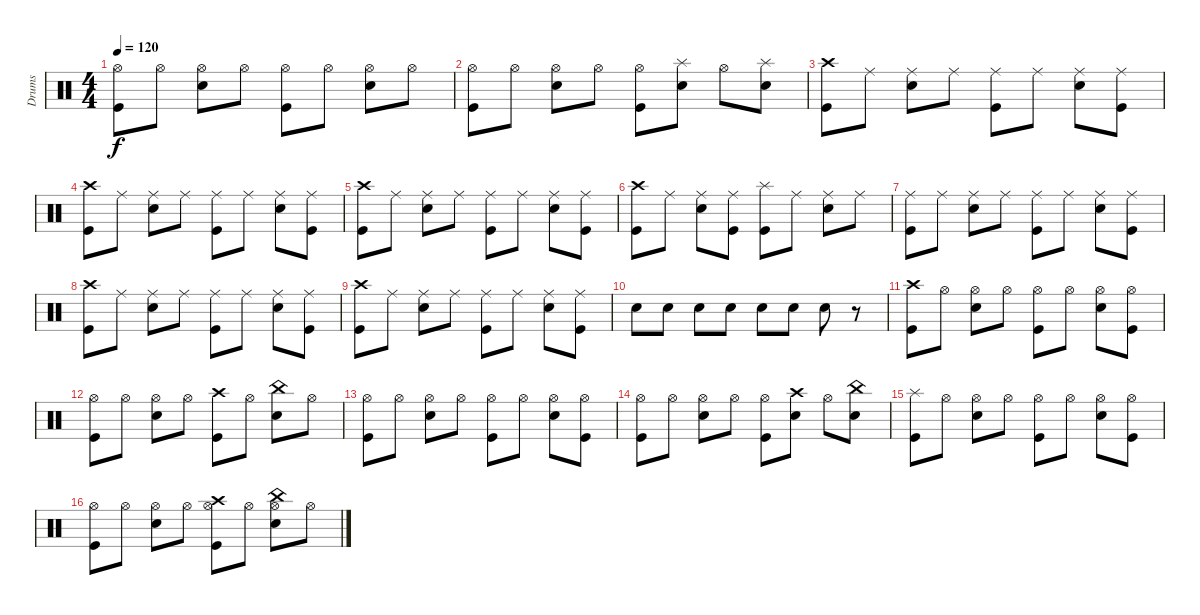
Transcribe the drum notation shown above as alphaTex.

\track ("Drums" "Drums") {instrument percussion}
\staff {score}
\articulation defaults
\ts (4 4)
\tempo 120
\clef neutral
\ks c
("Hi-Hat (open)" "Kick (hit)").8{dy f} "Hi-Hat (open)".8 ("Hi-Hat (open)" "Snare (hit) 2").8 "Hi-Hat (open)".8 ("Hi-Hat (open)" "Kick (hit)").8 "Hi-Hat (open)".8 ("Hi-Hat (open)" "Snare (hit) 2").8 "Hi-Hat (open)".8 |
("Hi-Hat (open)" "Kick (hit)").8 "Hi-Hat (open)".8 ("Hi-Hat (open)" "Snare (hit) 2").8 "Hi-Hat (open)".8 ("Hi-Hat (open)" "Kick (hit)").8 ("Snare (hit) 2" "Splash (hit)").8 "Hi-Hat (open)".8 ("Snare (hit) 2" "Splash (hit)").8 |
("Kick (hit)" "Crash high (hit)").8 "Ride (middle)".8 ("Ride (middle)" "Snare (hit) 2").8 "Ride (middle)".8 ("Ride (middle)" "Kick (hit)").8 "Ride (middle)".8 ("Ride (middle)" "Snare (hit) 2").8 ("Ride (middle)" "Kick (hit)").8 |
("Kick (hit)" "Crash high (hit)").8 "Ride (middle)".8 ("Ride (middle)" "Snare (hit) 2").8 "Ride (middle)".8 ("Ride (middle)" "Kick (hit)").8 "Ride (middle)".8 ("Ride (middle)" "Snare (hit) 2").8 ("Ride (middle)" "Kick (hit)").8 |
("Kick (hit)" "Crash high (hit)").8 "Ride (middle)".8 ("Ride (middle)" "Snare (hit) 2").8 "Ride (middle)".8 ("Ride (middle)" "Kick (hit)").8 "Ride (middle)".8 ("Ride (middle)" "Snare (hit) 2").8 ("Ride (middle)" "Kick (hit)").8 |
("Kick (hit)" "Crash high (hit)").8 "Ride (middle)".8 ("Ride (middle)" "Snare (hit) 2").8 ("Ride (middle)" "Kick (hit)").8 ("Kick (hit)" "Splash (hit)").8 "Ride (middle)".8 ("Ride (middle)" "Snare (hit) 2").8 "Ride (middle)".8 |
("Ride (middle)" "Kick (hit)").8 "Ride (middle)".8 ("Ride (middle)" "Snare (hit) 2").8 "Ride (middle)".8 ("Ride (middle)" "Kick (hit)").8 "Ride (middle)".8 ("Ride (middle)" "Snare (hit) 2").8 ("Ride (middle)" "Kick (hit)").8 |
("Kick (hit)" "Crash high (hit)").8 "Ride (middle)".8 ("Ride (middle)" "Snare (hit) 2").8 "Ride (middle)".8 ("Ride (middle)" "Kick (hit)").8 "Ride (middle)".8 ("Ride (middle)" "Snare (hit) 2").8 ("Ride (middle)" "Kick (hit)").8 |
("Kick (hit)" "Crash high (hit)").8 "Ride (middle)".8 ("Ride (middle)" "Snare (hit) 2").8 "Ride (middle)".8 ("Ride (middle)" "Kick (hit)").8 "Ride (middle)".8 ("Ride (middle)" "Snare (hit) 2").8 ("Ride (middle)" "Kick (hit)").8 |
"Snare (hit) 2".8 "Snare (hit) 2".8 "Snare (hit) 2".8 "Snare (hit) 2".8 "Snare (hit) 2".8 "Snare (hit) 2".8 "Snare (hit) 2".8 r.8 |
("Kick (hit)" "Crash high (hit)").8 "Hi-Hat (open)".8 ("Hi-Hat (open)" "Snare (hit) 2").8 "Hi-Hat (open)".8 ("Hi-Hat (open)" "Kick (hit)").8 "Hi-Hat (open)".8 ("Hi-Hat (open)" "Snare (hit) 2").8 ("Hi-Hat (open)" "Kick (hit)").8 |
("Hi-Hat (open)" "Kick (hit)").8 "Hi-Hat (open)".8 ("Hi-Hat (open)" "Snare (hit) 2").8 "Hi-Hat (open)".8 ("Kick (hit)" "Crash high (hit)").8 "Hi-Hat (open)".8 ("Snare (hit) 2" "China (hit)").8 "Hi-Hat (open)".8 |
("Hi-Hat (open)" "Kick (hit)").8 "Hi-Hat (open)".8 ("Hi-Hat (open)" "Snare (hit) 2").8 "Hi-Hat (open)".8 ("Hi-Hat (open)" "Kick (hit)").8 "Hi-Hat (open)".8 ("Hi-Hat (open)" "Snare (hit) 2").8 ("Hi-Hat (open)" "Kick (hit)").8 |
("Hi-Hat (open)" "Kick (hit)").8 "Hi-Hat (open)".8 ("Hi-Hat (open)" "Snare (hit) 2").8 "Hi-Hat (open)".8 ("Hi-Hat (open)" "Kick (hit)").8 ("Snare (hit) 2" "Crash high (hit)").8 "Hi-Hat (open)".8 ("Snare (hit) 2" "China (hit)").8 |
("Kick (hit)" "Splash (hit)").8 "Hi-Hat (open)".8 ("Hi-Hat (open)" "Snare (hit) 2").8 "Hi-Hat (open)".8 ("Hi-Hat (open)" "Kick (hit)").8 "Hi-Hat (open)".8 ("Hi-Hat (open)" "Snare (hit) 2").8 ("Hi-Hat (open)" "Kick (hit)").8 |
("Hi-Hat (open)" "Kick (hit)").8 "Hi-Hat (open)".8 ("Hi-Hat (open)" "Snare (hit) 2").8 "Hi-Hat (open)".8 ("Hi-Hat (open)" "Kick (hit)" "Crash high (hit)").8 "Hi-Hat (open)".8 ("Hi-Hat (open)" "Snare (hit) 2" "China (hit)").8 "Hi-Hat (open)".8
